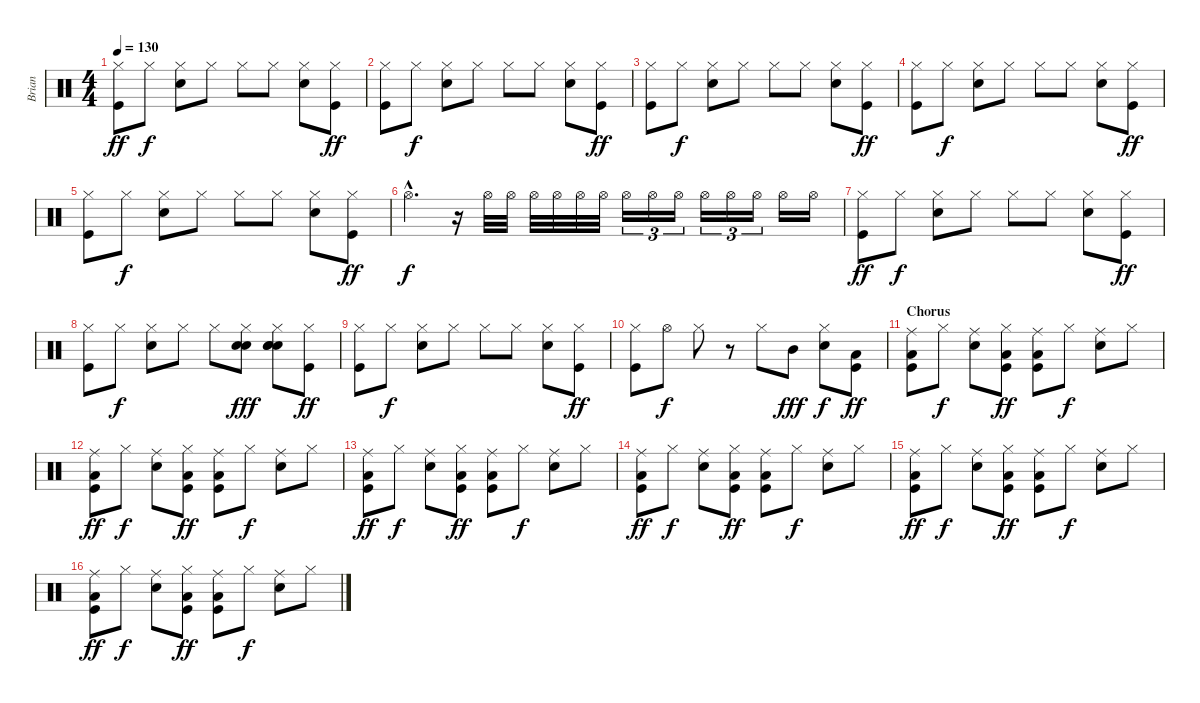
\track ("Brian" "Brian") {instrument percussion}
\staff {score}
\articulation defaults
\ts (4 4)
\tempo 130
\clef neutral
\ks c
("Hi-Hat (closed)" "Kick (hit)").8{dy ff} "Hi-Hat (closed)".8{dy f} ("Hi-Hat (closed)" "Electric Snare (hit)").8 "Hi-Hat (closed)".8 "Hi-Hat (closed)".8 "Hi-Hat (closed)".8 ("Hi-Hat (closed)" "Electric Snare (hit)").8 ("Hi-Hat (closed)" "Kick (hit)").8{dy ff} |
("Hi-Hat (closed)" "Kick (hit)").8 "Hi-Hat (closed)".8{dy f} ("Hi-Hat (closed)" "Electric Snare (hit)").8 "Hi-Hat (closed)".8 "Hi-Hat (closed)".8 "Hi-Hat (closed)".8 ("Hi-Hat (closed)" "Electric Snare (hit)").8 ("Hi-Hat (closed)" "Kick (hit)").8{dy ff} |
("Hi-Hat (closed)" "Kick (hit)").8 "Hi-Hat (closed)".8{dy f} ("Hi-Hat (closed)" "Electric Snare (hit)").8 "Hi-Hat (closed)".8 "Hi-Hat (closed)".8 "Hi-Hat (closed)".8 ("Hi-Hat (closed)" "Electric Snare (hit)").8 ("Hi-Hat (closed)" "Kick (hit)").8{dy ff} |
("Hi-Hat (closed)" "Kick (hit)").8 "Hi-Hat (closed)".8{dy f} ("Hi-Hat (closed)" "Electric Snare (hit)").8 "Hi-Hat (closed)".8 "Hi-Hat (closed)".8 "Hi-Hat (closed)".8 ("Hi-Hat (closed)" "Electric Snare (hit)").8 ("Hi-Hat (closed)" "Kick (hit)").8{dy ff} |
("Hi-Hat (closed)" "Kick (hit)").8 "Hi-Hat (closed)".8{dy f} ("Hi-Hat (closed)" "Electric Snare (hit)").8 "Hi-Hat (closed)".8 "Hi-Hat (closed)".8 "Hi-Hat (closed)".8 ("Hi-Hat (closed)" "Electric Snare (hit)").8 ("Hi-Hat (closed)" "Kick (hit)").8{dy ff} |
"Hi-Hat (open)"{hac}.4{d dy f} r.16 "Hi-Hat (open)".32 "Hi-Hat (open)".32 "Hi-Hat (open)".32 "Hi-Hat (open)".32 "Hi-Hat (open)".32 "Hi-Hat (open)".32 "Hi-Hat (open)".16{tu (3 2)} "Hi-Hat (open)".16{tu (3 2)} "Hi-Hat (open)".16{tu (3 2)} "Hi-Hat (open)".16{tu (3 2)} "Hi-Hat (open)".16{tu (3 2)} "Hi-Hat (open)".16{tu (3 2)} "Hi-Hat (open)".16 "Hi-Hat (open)".16 |
("Hi-Hat (closed)" "Kick (hit)").8{dy ff} "Hi-Hat (closed)".8{dy f} ("Hi-Hat (closed)" "Electric Snare (hit)").8 "Hi-Hat (closed)".8 "Hi-Hat (closed)".8 "Hi-Hat (closed)".8 ("Hi-Hat (closed)" "Electric Snare (hit)").8 ("Hi-Hat (closed)" "Kick (hit)").8{dy ff} |
("Hi-Hat (closed)" "Kick (hit)").8 "Hi-Hat (closed)".8{dy f} ("Hi-Hat (closed)" "Electric Snare (hit)").8 "Hi-Hat (closed)".8 "Hi-Hat (closed)".8 ("Hand Clap (hit)" "Hi-Hat (closed)" "Hand Clap (hit)").8{dy fff} ("Hand Clap (hit)" "Hi-Hat (closed)" "Hand Clap (hit)" "Electric Snare (hit)").8 ("Hi-Hat (closed)" "Kick (hit)").8{dy ff} |
("Hi-Hat (closed)" "Kick (hit)").8 "Hi-Hat (closed)".8{dy f} ("Hi-Hat (closed)" "Electric Snare (hit)").8 "Hi-Hat (closed)".8 "Hi-Hat (closed)".8 "Hi-Hat (closed)".8 ("Hi-Hat (closed)" "Electric Snare (hit)").8 ("Hi-Hat (closed)" "Kick (hit)").8{dy ff} |
("Hi-Hat (closed)" "Kick (hit)").8 "Hi-Hat (open)".8{dy f} "Hi-Hat (closed)".8 r.8 "Hi-Hat (closed)".8 "Mid Tom (hit)".8{dy fff} ("Hi-Hat (closed)" "Electric Snare (hit)").8{dy f} ("Low Tom (hit)" "Kick (hit)").8{dy ff} |
\section ("" "Chorus")
("Ride (middle)" "Low Tom (hit)" "Kick (hit)").8 "Hi-Hat (closed)".8{dy f} ("Ride (middle)" "Electric Snare (hit)").8 ("Hi-Hat (closed)" "Low Tom (hit)" "Kick (hit)").8{dy ff} ("Ride (middle)" "Low Tom (hit)" "Kick (hit)").8 "Hi-Hat (closed)".8{dy f} ("Ride (middle)" "Electric Snare (hit)").8 "Hi-Hat (closed)".8 |
("Ride (middle)" "Low Tom (hit)" "Kick (hit)").8{dy ff} "Hi-Hat (closed)".8{dy f} ("Ride (middle)" "Electric Snare (hit)").8 ("Hi-Hat (closed)" "Low Tom (hit)" "Kick (hit)").8{dy ff} ("Ride (middle)" "Low Tom (hit)" "Kick (hit)").8 "Hi-Hat (closed)".8{dy f} ("Ride (middle)" "Electric Snare (hit)").8 "Hi-Hat (closed)".8 |
("Ride (middle)" "Low Tom (hit)" "Kick (hit)").8{dy ff} "Hi-Hat (closed)".8{dy f} ("Ride (middle)" "Electric Snare (hit)").8 ("Hi-Hat (closed)" "Low Tom (hit)" "Kick (hit)").8{dy ff} ("Ride (middle)" "Low Tom (hit)" "Kick (hit)").8 "Hi-Hat (closed)".8{dy f} ("Ride (middle)" "Electric Snare (hit)").8 "Hi-Hat (closed)".8 |
("Ride (middle)" "Low Tom (hit)" "Kick (hit)").8{dy ff} "Hi-Hat (closed)".8{dy f} ("Ride (middle)" "Electric Snare (hit)").8 ("Hi-Hat (closed)" "Low Tom (hit)" "Kick (hit)").8{dy ff} ("Ride (middle)" "Low Tom (hit)" "Kick (hit)").8 "Hi-Hat (closed)".8{dy f} ("Ride (middle)" "Electric Snare (hit)").8 "Hi-Hat (closed)".8 |
("Ride (middle)" "Low Tom (hit)" "Kick (hit)").8{dy ff} "Hi-Hat (closed)".8{dy f} ("Ride (middle)" "Electric Snare (hit)").8 ("Hi-Hat (closed)" "Low Tom (hit)" "Kick (hit)").8{dy ff} ("Ride (middle)" "Low Tom (hit)" "Kick (hit)").8 "Hi-Hat (closed)".8{dy f} ("Ride (middle)" "Electric Snare (hit)").8 "Hi-Hat (closed)".8 |
("Ride (middle)" "Low Tom (hit)" "Kick (hit)").8{dy ff} "Hi-Hat (closed)".8{dy f} ("Ride (middle)" "Electric Snare (hit)").8 ("Hi-Hat (closed)" "Low Tom (hit)" "Kick (hit)").8{dy ff} ("Ride (middle)" "Low Tom (hit)" "Kick (hit)").8 "Hi-Hat (closed)".8{dy f} ("Ride (middle)" "Electric Snare (hit)").8 "Hi-Hat (closed)".8
